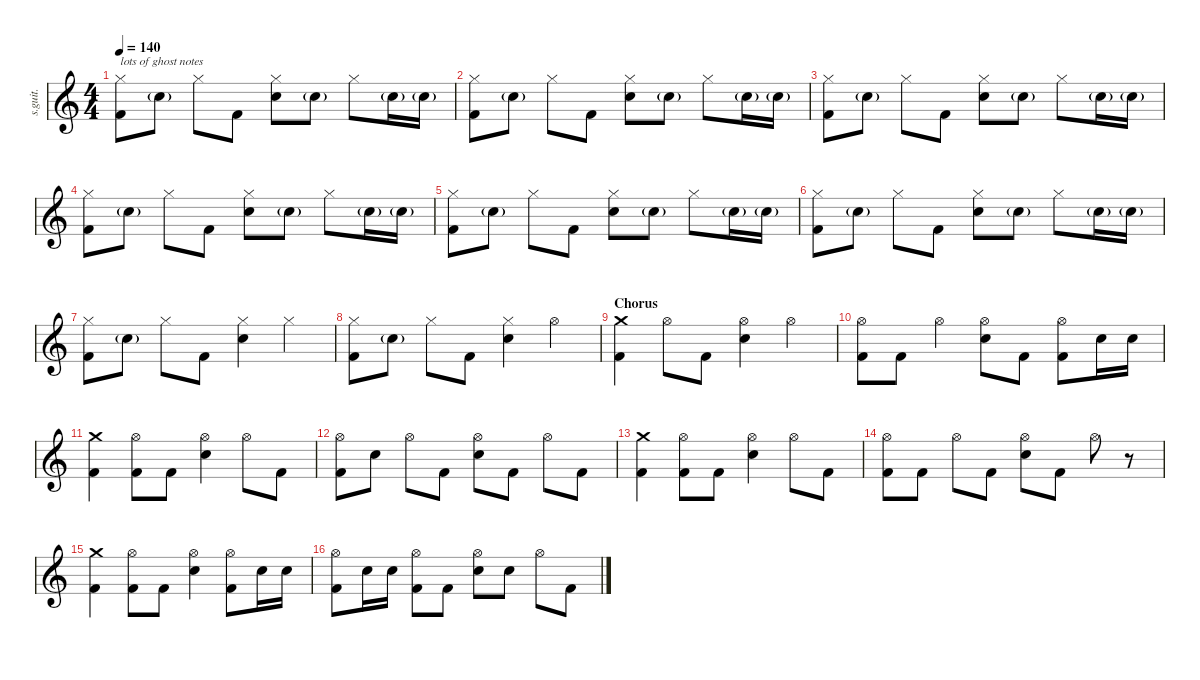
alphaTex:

\defaultSystemsLayout 4
\hideDynamics
\bracketExtendMode nobrackets
\track ("Abe Cunningham" "s.guit.") {instrument percussion}
\staff {score}
\articulation defaults
\ts (4 4)
\tempo 140
\clef g2
\ks c
("Hi-Hat (closed)" "Kick (hit) 2").8{txt "lots of ghost notes" lyrics (0 "") lyrics (1 "") lyrics (2 "") lyrics (3 "") lyrics (4 "") dy fff} "Snare (hit) 2"{g}.8{lyrics (0 "") lyrics (1 "") lyrics (2 "") lyrics (3 "") lyrics (4 "")} "Hi-Hat (closed)".8{lyrics (0 "") lyrics (1 "") lyrics (2 "") lyrics (3 "") lyrics (4 "")} "Kick (hit) 2".8{lyrics (0 "") lyrics (1 "") lyrics (2 "") lyrics (3 "") lyrics (4 "")} ("Hi-Hat (closed)" "Snare (hit) 2").8{lyrics (0 "") lyrics (1 "") lyrics (2 "") lyrics (3 "") lyrics (4 "")} "Snare (hit) 2"{g}.8{lyrics (0 "") lyrics (1 "") lyrics (2 "") lyrics (3 "") lyrics (4 "")} "Hi-Hat (closed)".8{lyrics (0 "") lyrics (1 "") lyrics (2 "") lyrics (3 "") lyrics (4 "")} "Snare (hit) 2"{g}.16{lyrics (0 "") lyrics (1 "") lyrics (2 "") lyrics (3 "") lyrics (4 "")} "Snare (hit) 2"{g}.16{lyrics (0 "") lyrics (1 "") lyrics (2 "") lyrics (3 "") lyrics (4 "")} |
("Hi-Hat (closed)" "Kick (hit) 2").8{lyrics (0 "") lyrics (1 "") lyrics (2 "") lyrics (3 "") lyrics (4 "")} "Snare (hit) 2"{g}.8{lyrics (0 "") lyrics (1 "") lyrics (2 "") lyrics (3 "") lyrics (4 "")} "Hi-Hat (closed)".8{lyrics (0 "") lyrics (1 "") lyrics (2 "") lyrics (3 "") lyrics (4 "")} "Kick (hit) 2".8{lyrics (0 "") lyrics (1 "") lyrics (2 "") lyrics (3 "") lyrics (4 "")} ("Hi-Hat (closed)" "Snare (hit) 2").8{lyrics (0 "") lyrics (1 "") lyrics (2 "") lyrics (3 "") lyrics (4 "")} "Snare (hit) 2"{g}.8{lyrics (0 "") lyrics (1 "") lyrics (2 "") lyrics (3 "") lyrics (4 "")} "Hi-Hat (closed)".8{lyrics (0 "") lyrics (1 "") lyrics (2 "") lyrics (3 "") lyrics (4 "")} "Snare (hit) 2"{g}.16{lyrics (0 "") lyrics (1 "") lyrics (2 "") lyrics (3 "") lyrics (4 "")} "Snare (hit) 2"{g}.16{lyrics (0 "") lyrics (1 "") lyrics (2 "") lyrics (3 "") lyrics (4 "")} |
("Hi-Hat (closed)" "Kick (hit) 2").8{lyrics (0 "") lyrics (1 "") lyrics (2 "") lyrics (3 "") lyrics (4 "")} "Snare (hit) 2"{g}.8{lyrics (0 "") lyrics (1 "") lyrics (2 "") lyrics (3 "") lyrics (4 "")} "Hi-Hat (closed)".8{lyrics (0 "") lyrics (1 "") lyrics (2 "") lyrics (3 "") lyrics (4 "")} "Kick (hit) 2".8{lyrics (0 "") lyrics (1 "") lyrics (2 "") lyrics (3 "") lyrics (4 "")} ("Hi-Hat (closed)" "Snare (hit) 2").8{lyrics (0 "") lyrics (1 "") lyrics (2 "") lyrics (3 "") lyrics (4 "")} "Snare (hit) 2"{g}.8{lyrics (0 "") lyrics (1 "") lyrics (2 "") lyrics (3 "") lyrics (4 "")} "Hi-Hat (closed)".8{lyrics (0 "") lyrics (1 "") lyrics (2 "") lyrics (3 "") lyrics (4 "")} "Snare (hit) 2"{g}.16{lyrics (0 "") lyrics (1 "") lyrics (2 "") lyrics (3 "") lyrics (4 "")} "Snare (hit) 2"{g}.16{lyrics (0 "") lyrics (1 "") lyrics (2 "") lyrics (3 "") lyrics (4 "")} |
("Hi-Hat (closed)" "Kick (hit) 2").8{lyrics (0 "") lyrics (1 "") lyrics (2 "") lyrics (3 "") lyrics (4 "")} "Snare (hit) 2"{g}.8{lyrics (0 "") lyrics (1 "") lyrics (2 "") lyrics (3 "") lyrics (4 "")} "Hi-Hat (closed)".8{lyrics (0 "") lyrics (1 "") lyrics (2 "") lyrics (3 "") lyrics (4 "")} "Kick (hit) 2".8{lyrics (0 "") lyrics (1 "") lyrics (2 "") lyrics (3 "") lyrics (4 "")} ("Hi-Hat (closed)" "Snare (hit) 2").8{lyrics (0 "") lyrics (1 "") lyrics (2 "") lyrics (3 "") lyrics (4 "")} "Snare (hit) 2"{g}.8{lyrics (0 "") lyrics (1 "") lyrics (2 "") lyrics (3 "") lyrics (4 "")} "Hi-Hat (closed)".8{lyrics (0 "") lyrics (1 "") lyrics (2 "") lyrics (3 "") lyrics (4 "")} "Snare (hit) 2"{g}.16{lyrics (0 "") lyrics (1 "") lyrics (2 "") lyrics (3 "") lyrics (4 "")} "Snare (hit) 2"{g}.16{lyrics (0 "") lyrics (1 "") lyrics (2 "") lyrics (3 "") lyrics (4 "")} |
("Hi-Hat (closed)" "Kick (hit) 2").8{lyrics (0 "") lyrics (1 "") lyrics (2 "") lyrics (3 "") lyrics (4 "")} "Snare (hit) 2"{g}.8{lyrics (0 "") lyrics (1 "") lyrics (2 "") lyrics (3 "") lyrics (4 "")} "Hi-Hat (closed)".8{lyrics (0 "") lyrics (1 "") lyrics (2 "") lyrics (3 "") lyrics (4 "")} "Kick (hit) 2".8{lyrics (0 "") lyrics (1 "") lyrics (2 "") lyrics (3 "") lyrics (4 "")} ("Hi-Hat (closed)" "Snare (hit) 2").8{lyrics (0 "") lyrics (1 "") lyrics (2 "") lyrics (3 "") lyrics (4 "")} "Snare (hit) 2"{g}.8{lyrics (0 "") lyrics (1 "") lyrics (2 "") lyrics (3 "") lyrics (4 "")} "Hi-Hat (closed)".8{lyrics (0 "") lyrics (1 "") lyrics (2 "") lyrics (3 "") lyrics (4 "")} "Snare (hit) 2"{g}.16{lyrics (0 "") lyrics (1 "") lyrics (2 "") lyrics (3 "") lyrics (4 "")} "Snare (hit) 2"{g}.16{lyrics (0 "") lyrics (1 "") lyrics (2 "") lyrics (3 "") lyrics (4 "")} |
("Hi-Hat (closed)" "Kick (hit) 2").8{lyrics (0 "") lyrics (1 "") lyrics (2 "") lyrics (3 "") lyrics (4 "")} "Snare (hit) 2"{g}.8{lyrics (0 "") lyrics (1 "") lyrics (2 "") lyrics (3 "") lyrics (4 "")} "Hi-Hat (closed)".8{lyrics (0 "") lyrics (1 "") lyrics (2 "") lyrics (3 "") lyrics (4 "")} "Kick (hit) 2".8{lyrics (0 "") lyrics (1 "") lyrics (2 "") lyrics (3 "") lyrics (4 "")} ("Hi-Hat (closed)" "Snare (hit) 2").8{lyrics (0 "") lyrics (1 "") lyrics (2 "") lyrics (3 "") lyrics (4 "")} "Snare (hit) 2"{g}.8{lyrics (0 "") lyrics (1 "") lyrics (2 "") lyrics (3 "") lyrics (4 "")} "Hi-Hat (closed)".8{lyrics (0 "") lyrics (1 "") lyrics (2 "") lyrics (3 "") lyrics (4 "")} "Snare (hit) 2"{g}.16{lyrics (0 "") lyrics (1 "") lyrics (2 "") lyrics (3 "") lyrics (4 "")} "Snare (hit) 2"{g}.16{lyrics (0 "") lyrics (1 "") lyrics (2 "") lyrics (3 "") lyrics (4 "")} |
("Hi-Hat (closed)" "Kick (hit) 2").8{lyrics (0 "") lyrics (1 "") lyrics (2 "") lyrics (3 "") lyrics (4 "")} "Snare (hit) 2"{g}.8{lyrics (0 "") lyrics (1 "") lyrics (2 "") lyrics (3 "") lyrics (4 "")} "Hi-Hat (closed)".8{lyrics (0 "") lyrics (1 "") lyrics (2 "") lyrics (3 "") lyrics (4 "")} "Kick (hit) 2".8{lyrics (0 "") lyrics (1 "") lyrics (2 "") lyrics (3 "") lyrics (4 "")} ("Hi-Hat (closed)" "Snare (hit) 2").4{lyrics (0 "") lyrics (1 "") lyrics (2 "") lyrics (3 "") lyrics (4 "")} "Hi-Hat (closed)".4{lyrics (0 "") lyrics (1 "") lyrics (2 "") lyrics (3 "") lyrics (4 "")} |
("Hi-Hat (closed)" "Kick (hit) 2").8{lyrics (0 "") lyrics (1 "") lyrics (2 "") lyrics (3 "") lyrics (4 "")} "Snare (hit) 2"{g}.8{lyrics (0 "") lyrics (1 "") lyrics (2 "") lyrics (3 "") lyrics (4 "")} "Hi-Hat (closed)".8{lyrics (0 "") lyrics (1 "") lyrics (2 "") lyrics (3 "") lyrics (4 "")} "Kick (hit) 2".8{lyrics (0 "") lyrics (1 "") lyrics (2 "") lyrics (3 "") lyrics (4 "")} ("Hi-Hat (closed)" "Snare (hit) 2").4{lyrics (0 "") lyrics (1 "") lyrics (2 "") lyrics (3 "") lyrics (4 "")} "Hi-Hat (open)".4{lyrics (0 "") lyrics (1 "") lyrics (2 "") lyrics (3 "") lyrics (4 "")} |
\section ("" "Chorus")
("Crash medium (hit)" "Kick (hit) 2").4{lyrics (0 "") lyrics (1 "") lyrics (2 "") lyrics (3 "") lyrics (4 "")} "Hi-Hat (open)".8{lyrics (0 "") lyrics (1 "") lyrics (2 "") lyrics (3 "") lyrics (4 "")} "Kick (hit) 2".8{lyrics (0 "") lyrics (1 "") lyrics (2 "") lyrics (3 "") lyrics (4 "")} ("Hi-Hat (open)" "Snare (hit) 2").4{lyrics (0 "") lyrics (1 "") lyrics (2 "") lyrics (3 "") lyrics (4 "")} "Hi-Hat (open)".4{lyrics (0 "") lyrics (1 "") lyrics (2 "") lyrics (3 "") lyrics (4 "")} |
("Hi-Hat (open)" "Kick (hit) 2").8{lyrics (0 "") lyrics (1 "") lyrics (2 "") lyrics (3 "") lyrics (4 "")} "Kick (hit) 2".8{lyrics (0 "") lyrics (1 "") lyrics (2 "") lyrics (3 "") lyrics (4 "")} "Hi-Hat (open)".4{lyrics (0 "") lyrics (1 "") lyrics (2 "") lyrics (3 "") lyrics (4 "")} ("Hi-Hat (open)" "Snare (hit) 2").8{lyrics (0 "") lyrics (1 "") lyrics (2 "") lyrics (3 "") lyrics (4 "")} "Kick (hit) 2".8{lyrics (0 "") lyrics (1 "") lyrics (2 "") lyrics (3 "") lyrics (4 "")} ("Hi-Hat (open)" "Kick (hit) 2").8{lyrics (0 "") lyrics (1 "") lyrics (2 "") lyrics (3 "") lyrics (4 "")} "Snare (hit) 2".16{lyrics (0 "") lyrics (1 "") lyrics (2 "") lyrics (3 "") lyrics (4 "")} "Snare (hit) 2".16{lyrics (0 "") lyrics (1 "") lyrics (2 "") lyrics (3 "") lyrics (4 "")} |
("Crash medium (hit)" "Kick (hit) 2").4{lyrics (0 "") lyrics (1 "") lyrics (2 "") lyrics (3 "") lyrics (4 "")} ("Hi-Hat (open)" "Kick (hit) 2").8{lyrics (0 "") lyrics (1 "") lyrics (2 "") lyrics (3 "") lyrics (4 "")} "Kick (hit) 2".8{lyrics (0 "") lyrics (1 "") lyrics (2 "") lyrics (3 "") lyrics (4 "")} ("Hi-Hat (open)" "Snare (hit) 2").4{lyrics (0 "") lyrics (1 "") lyrics (2 "") lyrics (3 "") lyrics (4 "")} "Hi-Hat (open)".8{lyrics (0 "") lyrics (1 "") lyrics (2 "") lyrics (3 "") lyrics (4 "")} "Kick (hit) 2".8{lyrics (0 "") lyrics (1 "") lyrics (2 "") lyrics (3 "") lyrics (4 "")} |
("Hi-Hat (open)" "Kick (hit) 2").8{lyrics (0 "") lyrics (1 "") lyrics (2 "") lyrics (3 "") lyrics (4 "")} "Snare (hit) 2".8{lyrics (0 "") lyrics (1 "") lyrics (2 "") lyrics (3 "") lyrics (4 "")} "Hi-Hat (open)".8{lyrics (0 "") lyrics (1 "") lyrics (2 "") lyrics (3 "") lyrics (4 "")} "Kick (hit) 2".8{lyrics (0 "") lyrics (1 "") lyrics (2 "") lyrics (3 "") lyrics (4 "")} ("Hi-Hat (open)" "Snare (hit) 2").8{lyrics (0 "") lyrics (1 "") lyrics (2 "") lyrics (3 "") lyrics (4 "")} "Kick (hit) 2".8{lyrics (0 "") lyrics (1 "") lyrics (2 "") lyrics (3 "") lyrics (4 "")} "Hi-Hat (open)".8{lyrics (0 "") lyrics (1 "") lyrics (2 "") lyrics (3 "") lyrics (4 "")} "Kick (hit) 2".8{lyrics (0 "") lyrics (1 "") lyrics (2 "") lyrics (3 "") lyrics (4 "")} |
("Crash medium (hit)" "Kick (hit) 2").4{lyrics (0 "") lyrics (1 "") lyrics (2 "") lyrics (3 "") lyrics (4 "")} ("Hi-Hat (open)" "Kick (hit) 2").8{lyrics (0 "") lyrics (1 "") lyrics (2 "") lyrics (3 "") lyrics (4 "")} "Kick (hit) 2".8{lyrics (0 "") lyrics (1 "") lyrics (2 "") lyrics (3 "") lyrics (4 "")} ("Hi-Hat (open)" "Snare (hit) 2").4{lyrics (0 "") lyrics (1 "") lyrics (2 "") lyrics (3 "") lyrics (4 "")} "Hi-Hat (open)".8{lyrics (0 "") lyrics (1 "") lyrics (2 "") lyrics (3 "") lyrics (4 "")} "Kick (hit) 2".8{lyrics (0 "") lyrics (1 "") lyrics (2 "") lyrics (3 "") lyrics (4 "")} |
("Hi-Hat (open)" "Kick (hit) 2").8{lyrics (0 "") lyrics (1 "") lyrics (2 "") lyrics (3 "") lyrics (4 "")} "Kick (hit) 2".8{lyrics (0 "") lyrics (1 "") lyrics (2 "") lyrics (3 "") lyrics (4 "")} "Hi-Hat (open)".8{lyrics (0 "") lyrics (1 "") lyrics (2 "") lyrics (3 "") lyrics (4 "")} "Kick (hit) 2".8{lyrics (0 "") lyrics (1 "") lyrics (2 "") lyrics (3 "") lyrics (4 "")} ("Hi-Hat (open)" "Snare (hit) 2").8{lyrics (0 "") lyrics (1 "") lyrics (2 "") lyrics (3 "") lyrics (4 "")} "Kick (hit) 2".8{lyrics (0 "") lyrics (1 "") lyrics (2 "") lyrics (3 "") lyrics (4 "")} "Hi-Hat (open)".8{lyrics (0 "") lyrics (1 "") lyrics (2 "") lyrics (3 "") lyrics (4 "")} r.8 |
("Crash medium (hit)" "Kick (hit) 2").4{lyrics (0 "") lyrics (1 "") lyrics (2 "") lyrics (3 "") lyrics (4 "")} ("Hi-Hat (open)" "Kick (hit) 2").8{lyrics (0 "") lyrics (1 "") lyrics (2 "") lyrics (3 "") lyrics (4 "")} "Kick (hit) 2".8{lyrics (0 "") lyrics (1 "") lyrics (2 "") lyrics (3 "") lyrics (4 "")} ("Hi-Hat (open)" "Snare (hit) 2").4{lyrics (0 "") lyrics (1 "") lyrics (2 "") lyrics (3 "") lyrics (4 "")} ("Hi-Hat (open)" "Kick (hit) 2").8{lyrics (0 "") lyrics (1 "") lyrics (2 "") lyrics (3 "") lyrics (4 "")} "Snare (hit) 2".16{lyrics (0 "") lyrics (1 "") lyrics (2 "") lyrics (3 "") lyrics (4 "")} "Snare (hit) 2".16{lyrics (0 "") lyrics (1 "") lyrics (2 "") lyrics (3 "") lyrics (4 "")} |
("Hi-Hat (open)" "Kick (hit) 2").8{lyrics (0 "") lyrics (1 "") lyrics (2 "") lyrics (3 "") lyrics (4 "")} "Snare (hit) 2".16{lyrics (0 "") lyrics (1 "") lyrics (2 "") lyrics (3 "") lyrics (4 "")} "Snare (hit) 2".16{lyrics (0 "") lyrics (1 "") lyrics (2 "") lyrics (3 "") lyrics (4 "")} ("Hi-Hat (open)" "Kick (hit) 2").8{lyrics (0 "") lyrics (1 "") lyrics (2 "") lyrics (3 "") lyrics (4 "")} "Kick (hit) 2".8{lyrics (0 "") lyrics (1 "") lyrics (2 "") lyrics (3 "") lyrics (4 "")} ("Hi-Hat (open)" "Snare (hit) 2").8{lyrics (0 "") lyrics (1 "") lyrics (2 "") lyrics (3 "") lyrics (4 "")} "Snare (hit) 2".8{lyrics (0 "") lyrics (1 "") lyrics (2 "") lyrics (3 "") lyrics (4 "")} "Hi-Hat (open)".8{lyrics (0 "") lyrics (1 "") lyrics (2 "") lyrics (3 "") lyrics (4 "")} "Kick (hit) 2".8{lyrics (0 "") lyrics (1 "") lyrics (2 "") lyrics (3 "") lyrics (4 "")}
